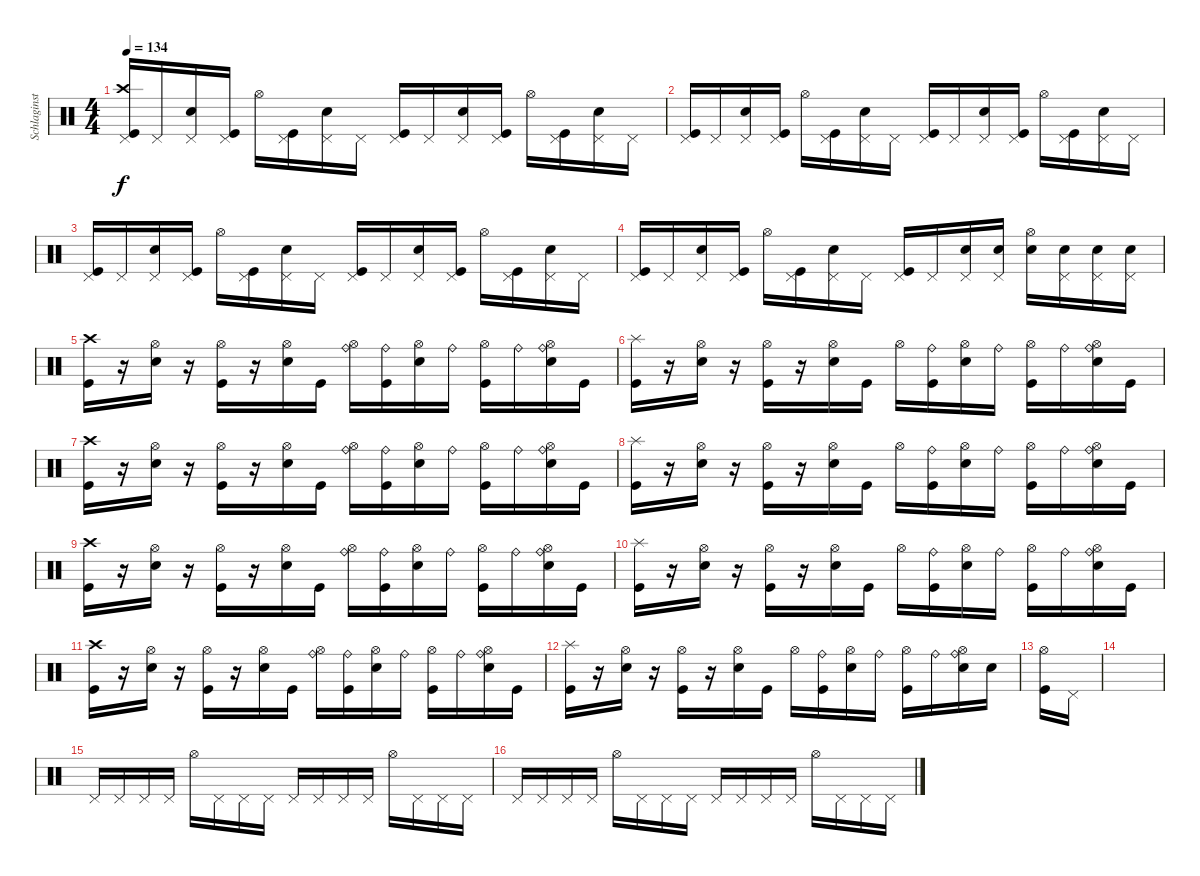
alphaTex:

\track ("Schlaginstrumente - Auswahl" "Schlaginst") {instrument percussion}
\staff {score}
\articulation defaults
\ts (4 4)
\tempo 134
\clef neutral
\ks c
("Pedal Hi-Hat (hit)" "Crash high (hit)" "Kick (hit)").16{dy f} "Pedal Hi-Hat (hit)".16 ("Pedal Hi-Hat (hit)" "Snare (hit) 2").16 ("Pedal Hi-Hat (hit)" "Kick (hit)").16 "Hi-Hat (open)".16 ("Pedal Hi-Hat (hit)" "Kick (hit)").16 ("Pedal Hi-Hat (hit)" "Snare (hit) 2").16 "Pedal Hi-Hat (hit)".16 ("Pedal Hi-Hat (hit)" "Kick (hit)").16 "Pedal Hi-Hat (hit)".16 ("Pedal Hi-Hat (hit)" "Snare (hit) 2").16 ("Pedal Hi-Hat (hit)" "Kick (hit)").16 "Hi-Hat (open)".16 ("Pedal Hi-Hat (hit)" "Kick (hit)").16 ("Pedal Hi-Hat (hit)" "Snare (hit) 2").16 "Pedal Hi-Hat (hit)".16 |
("Pedal Hi-Hat (hit)" "Kick (hit)").16 "Pedal Hi-Hat (hit)".16 ("Pedal Hi-Hat (hit)" "Snare (hit) 2").16 ("Pedal Hi-Hat (hit)" "Kick (hit)").16 "Hi-Hat (open)".16 ("Pedal Hi-Hat (hit)" "Kick (hit)").16 ("Pedal Hi-Hat (hit)" "Snare (hit) 2").16 "Pedal Hi-Hat (hit)".16 ("Pedal Hi-Hat (hit)" "Kick (hit)").16 "Pedal Hi-Hat (hit)".16 ("Pedal Hi-Hat (hit)" "Snare (hit) 2").16 ("Pedal Hi-Hat (hit)" "Kick (hit)").16 "Hi-Hat (open)".16 ("Pedal Hi-Hat (hit)" "Kick (hit)").16 ("Pedal Hi-Hat (hit)" "Snare (hit) 2").16 "Pedal Hi-Hat (hit)".16 |
("Pedal Hi-Hat (hit)" "Kick (hit)").16 "Pedal Hi-Hat (hit)".16 ("Pedal Hi-Hat (hit)" "Snare (hit) 2").16 ("Pedal Hi-Hat (hit)" "Kick (hit)").16 "Hi-Hat (open)".16 ("Pedal Hi-Hat (hit)" "Kick (hit)").16 ("Pedal Hi-Hat (hit)" "Snare (hit) 2").16 "Pedal Hi-Hat (hit)".16 ("Pedal Hi-Hat (hit)" "Kick (hit)").16 "Pedal Hi-Hat (hit)".16 ("Pedal Hi-Hat (hit)" "Snare (hit) 2").16 ("Pedal Hi-Hat (hit)" "Kick (hit)").16 "Hi-Hat (open)".16 ("Pedal Hi-Hat (hit)" "Kick (hit)").16 ("Pedal Hi-Hat (hit)" "Snare (hit) 2").16 "Pedal Hi-Hat (hit)".16 |
("Pedal Hi-Hat (hit)" "Kick (hit)").16 "Pedal Hi-Hat (hit)".16 ("Pedal Hi-Hat (hit)" "Snare (hit) 2").16 ("Pedal Hi-Hat (hit)" "Kick (hit)").16 "Hi-Hat (open)".16 ("Pedal Hi-Hat (hit)" "Kick (hit)").16 ("Pedal Hi-Hat (hit)" "Snare (hit) 2").16 "Pedal Hi-Hat (hit)".16 ("Pedal Hi-Hat (hit)" "Kick (hit)").16 "Pedal Hi-Hat (hit)".16 ("Pedal Hi-Hat (hit)" "Snare (hit) 2").16 ("Pedal Hi-Hat (hit)" "Snare (hit) 2").16 ("Hi-Hat (open)" "Snare (hit) 2").16 ("Pedal Hi-Hat (hit)" "Snare (hit) 2").16 ("Pedal Hi-Hat (hit)" "Snare (hit) 2").16 ("Pedal Hi-Hat (hit)" "Snare (hit) 2").16 |
("Crash high (hit)" "Kick (hit)").16 r.16 ("Hi-Hat (open)" "Snare (hit) 2").16 r.16 ("Hi-Hat (open)" "Kick (hit)").16 r.16 ("Hi-Hat (open)" "Snare (hit) 2").16 "Kick (hit)".16 ("Hi-Hat (open)" "Ride (bell)").16 ("Kick (hit)" "Ride (bell)").16 ("Hi-Hat (open)" "Snare (hit) 2").16 "Ride (bell)".16 ("Hi-Hat (open)" "Kick (hit)").16 "Ride (bell)".16 ("Hi-Hat (open)" "Snare (hit) 2" "Ride (bell)").16 "Kick (hit)".16 |
("Splash (hit)" "Kick (hit)").16 r.16 ("Hi-Hat (open)" "Snare (hit) 2").16 r.16 ("Hi-Hat (open)" "Kick (hit)").16 r.16 ("Hi-Hat (open)" "Snare (hit) 2").16 "Kick (hit)".16 "Hi-Hat (open)".16 ("Kick (hit)" "Ride (bell)").16 ("Hi-Hat (open)" "Snare (hit) 2").16 "Ride (bell)".16 ("Hi-Hat (open)" "Kick (hit)").16 "Ride (bell)".16 ("Hi-Hat (open)" "Snare (hit) 2" "Ride (bell)").16 "Kick (hit)".16 |
("Crash high (hit)" "Kick (hit)").16 r.16 ("Hi-Hat (open)" "Snare (hit) 2").16 r.16 ("Hi-Hat (open)" "Kick (hit)").16 r.16 ("Hi-Hat (open)" "Snare (hit) 2").16 "Kick (hit)".16 ("Hi-Hat (open)" "Ride (bell)").16 ("Kick (hit)" "Ride (bell)").16 ("Hi-Hat (open)" "Snare (hit) 2").16 "Ride (bell)".16 ("Hi-Hat (open)" "Kick (hit)").16 "Ride (bell)".16 ("Hi-Hat (open)" "Snare (hit) 2" "Ride (bell)").16 "Kick (hit)".16 |
("Splash (hit)" "Kick (hit)").16 r.16 ("Hi-Hat (open)" "Snare (hit) 2").16 r.16 ("Hi-Hat (open)" "Kick (hit)").16 r.16 ("Hi-Hat (open)" "Snare (hit) 2").16 "Kick (hit)".16 "Hi-Hat (open)".16 ("Kick (hit)" "Ride (bell)").16 ("Hi-Hat (open)" "Snare (hit) 2").16 "Ride (bell)".16 ("Hi-Hat (open)" "Kick (hit)").16 "Ride (bell)".16 ("Hi-Hat (open)" "Snare (hit) 2" "Ride (bell)").16 "Kick (hit)".16 |
("Crash high (hit)" "Kick (hit)").16 r.16 ("Hi-Hat (open)" "Snare (hit) 2").16 r.16 ("Hi-Hat (open)" "Kick (hit)").16 r.16 ("Hi-Hat (open)" "Snare (hit) 2").16 "Kick (hit)".16 ("Hi-Hat (open)" "Ride (bell)").16 ("Kick (hit)" "Ride (bell)").16 ("Hi-Hat (open)" "Snare (hit) 2").16 "Ride (bell)".16 ("Hi-Hat (open)" "Kick (hit)").16 "Ride (bell)".16 ("Hi-Hat (open)" "Snare (hit) 2" "Ride (bell)").16 "Kick (hit)".16 |
("Splash (hit)" "Kick (hit)").16 r.16 ("Hi-Hat (open)" "Snare (hit) 2").16 r.16 ("Hi-Hat (open)" "Kick (hit)").16 r.16 ("Hi-Hat (open)" "Snare (hit) 2").16 "Kick (hit)".16 "Hi-Hat (open)".16 ("Kick (hit)" "Ride (bell)").16 ("Hi-Hat (open)" "Snare (hit) 2").16 "Ride (bell)".16 ("Hi-Hat (open)" "Kick (hit)").16 "Ride (bell)".16 ("Hi-Hat (open)" "Snare (hit) 2" "Ride (bell)").16 "Kick (hit)".16 |
("Crash high (hit)" "Kick (hit)").16 r.16 ("Hi-Hat (open)" "Snare (hit) 2").16 r.16 ("Hi-Hat (open)" "Kick (hit)").16 r.16 ("Hi-Hat (open)" "Snare (hit) 2").16 "Kick (hit)".16 ("Hi-Hat (open)" "Ride (bell)").16 ("Kick (hit)" "Ride (bell)").16 ("Hi-Hat (open)" "Snare (hit) 2").16 "Ride (bell)".16 ("Hi-Hat (open)" "Kick (hit)").16 "Ride (bell)".16 ("Hi-Hat (open)" "Snare (hit) 2" "Ride (bell)").16 "Kick (hit)".16 |
("Splash (hit)" "Kick (hit)").16 r.16 ("Hi-Hat (open)" "Snare (hit) 2").16 r.16 ("Hi-Hat (open)" "Kick (hit)").16 r.16 ("Hi-Hat (open)" "Snare (hit) 2").16 "Kick (hit)".16 "Hi-Hat (open)".16 ("Kick (hit)" "Ride (bell)").16 ("Hi-Hat (open)" "Snare (hit) 2").16 "Ride (bell)".16 ("Hi-Hat (open)" "Kick (hit)").16 "Ride (bell)".16 ("Hi-Hat (open)" "Snare (hit) 2" "Ride (bell)").16 "Snare (hit) 2".16 |
("Hi-Hat (open)" "Kick (hit)").16 "Pedal Hi-Hat (hit)".16 |
|
"Pedal Hi-Hat (hit)".16 "Pedal Hi-Hat (hit)".16 "Pedal Hi-Hat (hit)".16 "Pedal Hi-Hat (hit)".16 "Hi-Hat (open)".16 "Pedal Hi-Hat (hit)".16 "Pedal Hi-Hat (hit)".16 "Pedal Hi-Hat (hit)".16 "Pedal Hi-Hat (hit)".16 "Pedal Hi-Hat (hit)".16 "Pedal Hi-Hat (hit)".16 "Pedal Hi-Hat (hit)".16 "Hi-Hat (open)".16 "Pedal Hi-Hat (hit)".16 "Pedal Hi-Hat (hit)".16 "Pedal Hi-Hat (hit)".16 |
"Pedal Hi-Hat (hit)".16 "Pedal Hi-Hat (hit)".16 "Pedal Hi-Hat (hit)".16 "Pedal Hi-Hat (hit)".16 "Hi-Hat (open)".16 "Pedal Hi-Hat (hit)".16 "Pedal Hi-Hat (hit)".16 "Pedal Hi-Hat (hit)".16 "Pedal Hi-Hat (hit)".16 "Pedal Hi-Hat (hit)".16 "Pedal Hi-Hat (hit)".16 "Pedal Hi-Hat (hit)".16 "Hi-Hat (open)".16 "Pedal Hi-Hat (hit)".16 "Pedal Hi-Hat (hit)".16 "Pedal Hi-Hat (hit)".16
